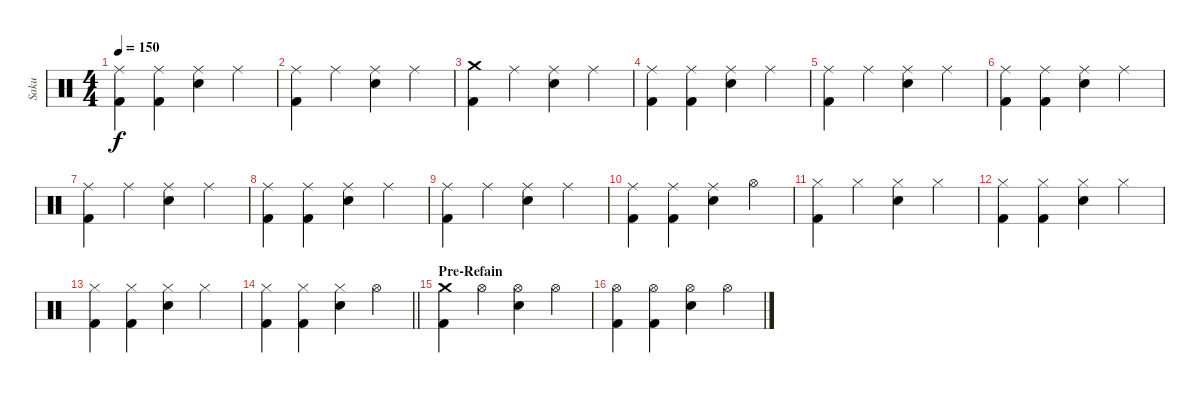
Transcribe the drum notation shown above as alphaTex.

\track ("Saku" "Saku") {instrument percussion}
\staff {score}
\articulation defaults
\ts (4 4)
\tempo 150
\clef neutral
\ks c
("Ride (middle)" "Kick (hit) 2").4{dy f} ("Ride (middle)" "Kick (hit) 2").4 ("Ride (middle)" "Electric Snare (hit)").4 "Ride (middle)".4 |
("Ride (middle)" "Kick (hit) 2").4 "Ride (middle)".4 ("Ride (middle)" "Electric Snare (hit)").4 "Ride (middle)".4 |
("Crash medium (hit)" "Kick (hit) 2").4 "Ride (middle)".4 ("Ride (middle)" "Electric Snare (hit)").4 "Ride (middle)".4 |
("Ride (middle)" "Kick (hit) 2").4 ("Ride (middle)" "Kick (hit) 2").4 ("Ride (middle)" "Electric Snare (hit)").4 "Ride (middle)".4 |
("Ride (middle)" "Kick (hit) 2").4 "Ride (middle)".4 ("Ride (middle)" "Electric Snare (hit)").4 "Ride (middle)".4 |
("Ride (middle)" "Kick (hit) 2").4 ("Ride (middle)" "Kick (hit) 2").4 ("Ride (middle)" "Electric Snare (hit)").4 "Ride (middle)".4 |
("Ride (middle)" "Kick (hit) 2").4 "Ride (middle)".4 ("Ride (middle)" "Electric Snare (hit)").4 "Ride (middle)".4 |
("Ride (middle)" "Kick (hit) 2").4 ("Ride (middle)" "Kick (hit) 2").4 ("Ride (middle)" "Electric Snare (hit)").4 "Ride (middle)".4 |
("Ride (middle)" "Kick (hit) 2").4 "Ride (middle)".4 ("Ride (middle)" "Electric Snare (hit)").4 "Ride (middle)".4 |
("Ride (middle)" "Kick (hit) 2").4 ("Ride (middle)" "Kick (hit) 2").4 ("Ride (middle)" "Electric Snare (hit)").4 "Hi-Hat (open)".4 |
("Hi-Hat (closed)" "Kick (hit) 2").4 "Hi-Hat (closed)".4 ("Hi-Hat (closed)" "Electric Snare (hit)").4 "Hi-Hat (closed)".4 |
("Hi-Hat (closed)" "Kick (hit) 2").4 ("Hi-Hat (closed)" "Kick (hit) 2").4 ("Hi-Hat (closed)" "Electric Snare (hit)").4 "Hi-Hat (closed)".4 |
("Hi-Hat (closed)" "Kick (hit) 2").4 ("Hi-Hat (closed)" "Kick (hit) 2").4 ("Hi-Hat (closed)" "Electric Snare (hit)").4 "Hi-Hat (closed)".4 |
\barLineRight lightlight
("Hi-Hat (closed)" "Kick (hit) 2").4 ("Hi-Hat (closed)" "Kick (hit) 2").4 ("Hi-Hat (closed)" "Electric Snare (hit)").4 "Hi-Hat (open)".4 |
\section ("" "Pre-Refain")
("Crash medium (hit)" "Kick (hit) 2").4 "Hi-Hat (open)".4 ("Hi-Hat (open)" "Electric Snare (hit)").4 "Hi-Hat (open)".4 |
("Hi-Hat (open)" "Kick (hit) 2").4 ("Hi-Hat (open)" "Kick (hit) 2").4 ("Hi-Hat (open)" "Electric Snare (hit)").4 "Hi-Hat (open)".4
